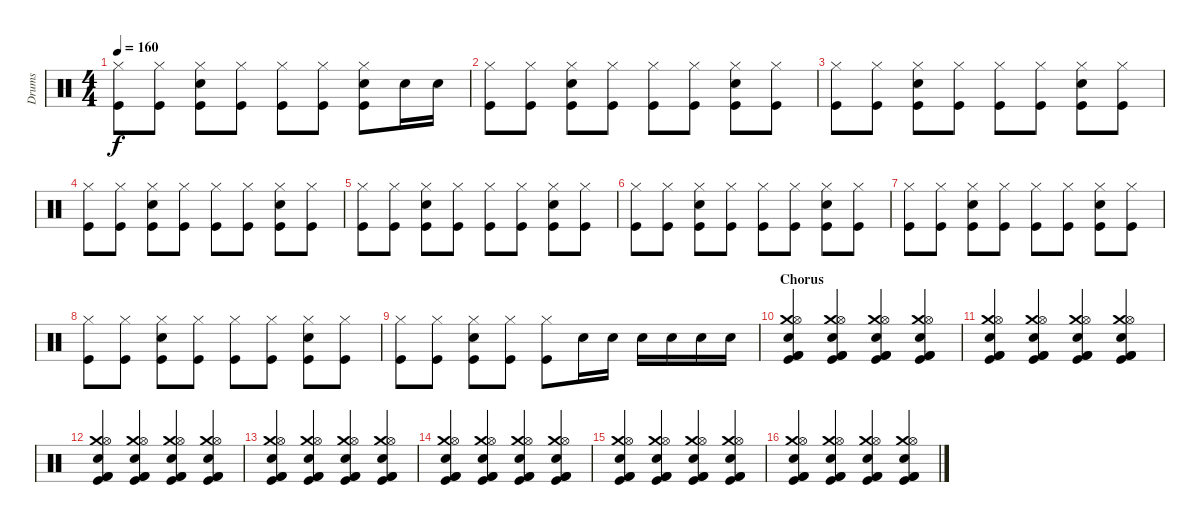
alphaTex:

\track ("Drums" "Drums") {instrument percussion}
\staff {score}
\articulation defaults
\ts (4 4)
\tempo 160
\clef neutral
\ks c
("Hi-Hat (closed)" "Kick (hit)").8{dy f} ("Hi-Hat (closed)" "Kick (hit)").8 ("Hi-Hat (closed)" "Electric Snare (hit)" "Kick (hit)").8 ("Hi-Hat (closed)" "Kick (hit)").8 ("Hi-Hat (closed)" "Kick (hit)").8 ("Hi-Hat (closed)" "Kick (hit)").8 ("Hi-Hat (closed)" "Electric Snare (hit)" "Kick (hit)").8 "Electric Snare (hit)".16 "Electric Snare (hit)".16 |
("Hi-Hat (closed)" "Kick (hit)").8 ("Hi-Hat (closed)" "Kick (hit)").8 ("Hi-Hat (closed)" "Electric Snare (hit)" "Kick (hit)").8 ("Hi-Hat (closed)" "Kick (hit)").8 ("Hi-Hat (closed)" "Kick (hit)").8 ("Hi-Hat (closed)" "Kick (hit)").8 ("Hi-Hat (closed)" "Electric Snare (hit)" "Kick (hit)").8 ("Hi-Hat (closed)" "Kick (hit)").8 |
("Hi-Hat (closed)" "Kick (hit)").8 ("Hi-Hat (closed)" "Kick (hit)").8 ("Hi-Hat (closed)" "Electric Snare (hit)" "Kick (hit)").8 ("Hi-Hat (closed)" "Kick (hit)").8 ("Hi-Hat (closed)" "Kick (hit)").8 ("Hi-Hat (closed)" "Kick (hit)").8 ("Hi-Hat (closed)" "Electric Snare (hit)" "Kick (hit)").8 ("Hi-Hat (closed)" "Kick (hit)").8 |
("Hi-Hat (closed)" "Kick (hit)").8 ("Hi-Hat (closed)" "Kick (hit)").8 ("Hi-Hat (closed)" "Electric Snare (hit)" "Kick (hit)").8 ("Hi-Hat (closed)" "Kick (hit)").8 ("Hi-Hat (closed)" "Kick (hit)").8 ("Hi-Hat (closed)" "Kick (hit)").8 ("Hi-Hat (closed)" "Electric Snare (hit)" "Kick (hit)").8 ("Hi-Hat (closed)" "Kick (hit)").8 |
("Hi-Hat (closed)" "Kick (hit)").8 ("Hi-Hat (closed)" "Kick (hit)").8 ("Hi-Hat (closed)" "Electric Snare (hit)" "Kick (hit)").8 ("Hi-Hat (closed)" "Kick (hit)").8 ("Hi-Hat (closed)" "Kick (hit)").8 ("Hi-Hat (closed)" "Kick (hit)").8 ("Hi-Hat (closed)" "Electric Snare (hit)" "Kick (hit)").8 ("Hi-Hat (closed)" "Kick (hit)").8 |
("Hi-Hat (closed)" "Kick (hit)").8 ("Hi-Hat (closed)" "Kick (hit)").8 ("Hi-Hat (closed)" "Electric Snare (hit)" "Kick (hit)").8 ("Hi-Hat (closed)" "Kick (hit)").8 ("Hi-Hat (closed)" "Kick (hit)").8 ("Hi-Hat (closed)" "Kick (hit)").8 ("Hi-Hat (closed)" "Electric Snare (hit)" "Kick (hit)").8 ("Hi-Hat (closed)" "Kick (hit)").8 |
("Hi-Hat (closed)" "Kick (hit)").8 ("Hi-Hat (closed)" "Kick (hit)").8 ("Hi-Hat (closed)" "Electric Snare (hit)" "Kick (hit)").8 ("Hi-Hat (closed)" "Kick (hit)").8 ("Hi-Hat (closed)" "Kick (hit)").8 ("Hi-Hat (closed)" "Kick (hit)").8 ("Hi-Hat (closed)" "Electric Snare (hit)" "Kick (hit)").8 ("Hi-Hat (closed)" "Kick (hit)").8 |
("Hi-Hat (closed)" "Kick (hit)").8 ("Hi-Hat (closed)" "Kick (hit)").8 ("Hi-Hat (closed)" "Electric Snare (hit)" "Kick (hit)").8 ("Hi-Hat (closed)" "Kick (hit)").8 ("Hi-Hat (closed)" "Kick (hit)").8 ("Hi-Hat (closed)" "Kick (hit)").8 ("Hi-Hat (closed)" "Electric Snare (hit)" "Kick (hit)").8 ("Hi-Hat (closed)" "Kick (hit)").8 |
("Hi-Hat (closed)" "Kick (hit)").8 ("Hi-Hat (closed)" "Kick (hit)").8 ("Hi-Hat (closed)" "Electric Snare (hit)" "Kick (hit)").8 ("Hi-Hat (closed)" "Kick (hit)").8 ("Hi-Hat (closed)" "Kick (hit)").8 "Electric Snare (hit)".16 "Electric Snare (hit)".16 "Electric Snare (hit)".16 "Electric Snare (hit)".16 "Electric Snare (hit)".16 "Electric Snare (hit)".16 |
\section ("" "Chorus")
("Crash medium (hit)" "Hi-Hat (open)" "Electric Snare (hit)" "Kick (hit) 2" "Kick (hit)" "Kick (hit) 2").4 ("Crash medium (hit)" "Hi-Hat (open)" "Electric Snare (hit)" "Kick (hit) 2" "Kick (hit)" "Kick (hit) 2").4 ("Crash medium (hit)" "Hi-Hat (open)" "Electric Snare (hit)" "Kick (hit) 2" "Kick (hit)" "Kick (hit) 2").4 ("Crash medium (hit)" "Hi-Hat (open)" "Electric Snare (hit)" "Kick (hit) 2" "Kick (hit)" "Kick (hit) 2").4 |
("Crash medium (hit)" "Hi-Hat (open)" "Electric Snare (hit)" "Kick (hit) 2" "Kick (hit)" "Kick (hit) 2").4 ("Crash medium (hit)" "Hi-Hat (open)" "Electric Snare (hit)" "Kick (hit) 2" "Kick (hit)" "Kick (hit) 2").4 ("Crash medium (hit)" "Hi-Hat (open)" "Electric Snare (hit)" "Kick (hit) 2" "Kick (hit)" "Kick (hit) 2").4 ("Crash medium (hit)" "Hi-Hat (open)" "Electric Snare (hit)" "Kick (hit) 2" "Kick (hit)" "Kick (hit) 2").4 |
("Crash medium (hit)" "Hi-Hat (open)" "Electric Snare (hit)" "Kick (hit) 2" "Kick (hit)" "Kick (hit) 2").4 ("Crash medium (hit)" "Hi-Hat (open)" "Electric Snare (hit)" "Kick (hit) 2" "Kick (hit)" "Kick (hit) 2").4 ("Crash medium (hit)" "Hi-Hat (open)" "Electric Snare (hit)" "Kick (hit) 2" "Kick (hit)" "Kick (hit) 2").4 ("Crash medium (hit)" "Hi-Hat (open)" "Electric Snare (hit)" "Kick (hit) 2" "Kick (hit)" "Kick (hit) 2").4 |
("Crash medium (hit)" "Hi-Hat (open)" "Electric Snare (hit)" "Kick (hit) 2" "Kick (hit)" "Kick (hit) 2").4 ("Crash medium (hit)" "Hi-Hat (open)" "Electric Snare (hit)" "Kick (hit) 2" "Kick (hit)" "Kick (hit) 2").4 ("Crash medium (hit)" "Hi-Hat (open)" "Electric Snare (hit)" "Kick (hit) 2" "Kick (hit)" "Kick (hit) 2").4 ("Crash medium (hit)" "Hi-Hat (open)" "Electric Snare (hit)" "Kick (hit) 2" "Kick (hit)" "Kick (hit) 2").4 |
("Crash medium (hit)" "Hi-Hat (open)" "Electric Snare (hit)" "Kick (hit) 2" "Kick (hit)" "Kick (hit) 2").4 ("Crash medium (hit)" "Hi-Hat (open)" "Electric Snare (hit)" "Kick (hit) 2" "Kick (hit)" "Kick (hit) 2").4 ("Crash medium (hit)" "Hi-Hat (open)" "Electric Snare (hit)" "Kick (hit) 2" "Kick (hit)" "Kick (hit) 2").4 ("Crash medium (hit)" "Hi-Hat (open)" "Electric Snare (hit)" "Kick (hit) 2" "Kick (hit)" "Kick (hit) 2").4 |
("Crash medium (hit)" "Hi-Hat (open)" "Electric Snare (hit)" "Kick (hit) 2" "Kick (hit)" "Kick (hit) 2").4 ("Crash medium (hit)" "Hi-Hat (open)" "Electric Snare (hit)" "Kick (hit) 2" "Kick (hit)" "Kick (hit) 2").4 ("Crash medium (hit)" "Hi-Hat (open)" "Electric Snare (hit)" "Kick (hit) 2" "Kick (hit)" "Kick (hit) 2").4 ("Crash medium (hit)" "Hi-Hat (open)" "Electric Snare (hit)" "Kick (hit) 2" "Kick (hit)" "Kick (hit) 2").4 |
("Crash medium (hit)" "Hi-Hat (open)" "Electric Snare (hit)" "Kick (hit) 2" "Kick (hit)" "Kick (hit) 2").4 ("Crash medium (hit)" "Hi-Hat (open)" "Electric Snare (hit)" "Kick (hit) 2" "Kick (hit)" "Kick (hit) 2").4 ("Crash medium (hit)" "Hi-Hat (open)" "Electric Snare (hit)" "Kick (hit) 2" "Kick (hit)" "Kick (hit) 2").4 ("Crash medium (hit)" "Hi-Hat (open)" "Electric Snare (hit)" "Kick (hit) 2" "Kick (hit)" "Kick (hit) 2").4
